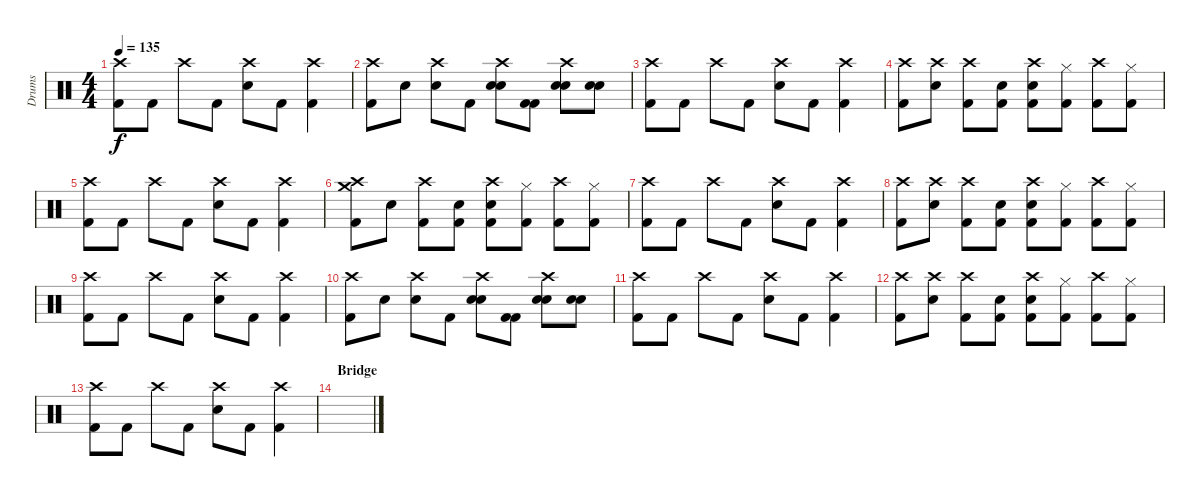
\track ("Drums" "Drums") {instrument percussion}
\staff {score}
\articulation defaults
\ts (4 4)
\tempo 135
\clef neutral
\ks c
("Crash high (hit)" "Kick (hit) 2"{x}).8{dy f} "Kick (hit) 2"{x}.8 "Crash high (hit)".8 "Kick (hit) 2".8 ("Crash high (hit)" "Electric Snare (hit)").8 "Kick (hit) 2".8 ("Crash high (hit)" "Kick (hit) 2"{x}).4 |
("Crash high (hit)" "Kick (hit) 2").8 "Snare (hit)"{x}.8 ("Crash high (hit)" "Snare (hit)"{x}).8 "Kick (hit) 2".8 ("Crash high (hit)" "Snare (hit) 2" "Electric Snare (hit)").8 ("Kick (hit) 2" "Kick (hit) 2").8 ("Crash high (hit)" "Snare (hit) 2" "Electric Snare (hit)").8 ("Snare (hit) 2"{x} "Electric Snare (hit)"{x}).8 |
("Crash high (hit)" "Kick (hit) 2"{x}).8 "Kick (hit) 2"{x}.8 "Crash high (hit)".8 "Kick (hit) 2".8 ("Crash high (hit)" "Electric Snare (hit)").8 "Kick (hit) 2".8 ("Crash high (hit)" "Kick (hit) 2"{x}).4 |
("Crash high (hit)" "Kick (hit) 2").8 ("Crash high (hit)"{x} "Snare (hit)"{x}).8 ("Crash high (hit)" "Kick (hit) 2"{x}).8 ("Electric Snare (hit)"{x} "Kick (hit) 2").8 ("Crash high (hit)" "Electric Snare (hit)" "Kick (hit) 2"{x}).8 ("Hi-Hat (closed)"{x} "Kick (hit) 2"{x}).8 ("Crash high (hit)" "Kick (hit) 2").8 ("Hi-Hat (closed)"{x} "Kick (hit) 2").8 |
("Crash high (hit)" "Kick (hit) 2"{x}).8 "Kick (hit) 2"{x}.8 "Crash high (hit)".8 "Kick (hit) 2".8 ("Crash high (hit)" "Electric Snare (hit)").8 "Kick (hit) 2".8 ("Crash high (hit)" "Kick (hit) 2"{x}).4 |
("Crash high (hit)" "Crash medium (hit)" "Kick (hit) 2").8 "Snare (hit)"{x}.8 ("Crash high (hit)" "Kick (hit) 2"{x}).8 ("Electric Snare (hit)"{x} "Kick (hit) 2").8 ("Crash high (hit)" "Electric Snare (hit)" "Kick (hit) 2"{x}).8 ("Hi-Hat (closed)"{x} "Kick (hit) 2"{x}).8 ("Crash high (hit)" "Kick (hit) 2").8 ("Hi-Hat (closed)"{x} "Kick (hit) 2").8 |
("Crash high (hit)" "Kick (hit) 2"{x}).8 "Kick (hit) 2"{x}.8 "Crash high (hit)".8 "Kick (hit) 2".8 ("Crash high (hit)" "Electric Snare (hit)").8 "Kick (hit) 2".8 ("Crash high (hit)" "Kick (hit) 2"{x}).4 |
("Crash high (hit)" "Kick (hit) 2").8 ("Crash high (hit)"{x} "Snare (hit)"{x}).8 ("Crash high (hit)" "Kick (hit) 2"{x}).8 ("Electric Snare (hit)"{x} "Kick (hit) 2").8 ("Crash high (hit)" "Electric Snare (hit)" "Kick (hit) 2"{x}).8 ("Hi-Hat (closed)"{x} "Kick (hit) 2"{x}).8 ("Crash high (hit)" "Kick (hit) 2").8 ("Hi-Hat (closed)"{x} "Kick (hit) 2").8 |
("Crash high (hit)" "Kick (hit) 2"{x}).8 "Kick (hit) 2"{x}.8 "Crash high (hit)".8 "Kick (hit) 2".8 ("Crash high (hit)" "Electric Snare (hit)").8 "Kick (hit) 2".8 ("Crash high (hit)" "Kick (hit) 2"{x}).4 |
("Crash high (hit)" "Kick (hit) 2").8 "Snare (hit)"{x}.8 ("Crash high (hit)" "Snare (hit)"{x}).8 "Kick (hit) 2".8 ("Crash high (hit)" "Snare (hit) 2" "Electric Snare (hit)").8 ("Kick (hit) 2" "Kick (hit) 2").8 ("Crash high (hit)" "Snare (hit) 2" "Electric Snare (hit)").8 ("Snare (hit) 2"{x} "Electric Snare (hit)"{x}).8 |
("Crash high (hit)" "Kick (hit) 2"{x}).8 "Kick (hit) 2"{x}.8 "Crash high (hit)".8 "Kick (hit) 2".8 ("Crash high (hit)" "Electric Snare (hit)").8 "Kick (hit) 2".8 ("Crash high (hit)" "Kick (hit) 2"{x}).4 |
("Crash high (hit)" "Kick (hit) 2").8 ("Crash high (hit)"{x} "Snare (hit)"{x}).8 ("Crash high (hit)" "Kick (hit) 2"{x}).8 ("Electric Snare (hit)"{x} "Kick (hit) 2").8 ("Crash high (hit)" "Electric Snare (hit)" "Kick (hit) 2"{x}).8 ("Hi-Hat (closed)"{x} "Kick (hit) 2"{x}).8 ("Crash high (hit)" "Kick (hit) 2").8 ("Hi-Hat (closed)"{x} "Kick (hit) 2").8 |
("Crash high (hit)" "Kick (hit) 2"{x}).8 "Kick (hit) 2"{x}.8 "Crash high (hit)".8 "Kick (hit) 2".8 ("Crash high (hit)" "Electric Snare (hit)").8 "Kick (hit) 2".8 ("Crash high (hit)" "Kick (hit) 2"{x}).4 |
\section ("" "Bridge")
